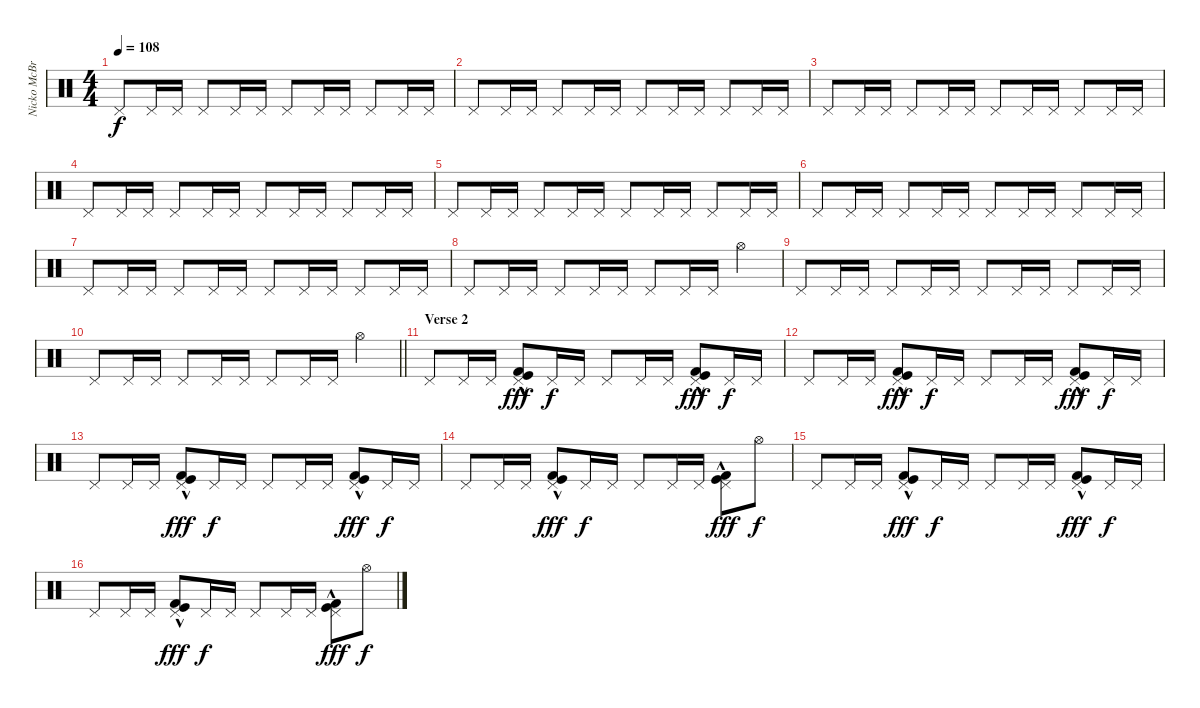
\track ("Nicko McBrain" "Nicko McBr") {instrument percussion}
\staff {score}
\articulation defaults
\ts (4 4)
\tempo 108
\clef neutral
\ks c "Pedal Hi-Hat (hit)".8{dy f} "Pedal Hi-Hat (hit)".16 "Pedal Hi-Hat (hit)".16 "Pedal Hi-Hat (hit)".8 "Pedal Hi-Hat (hit)".16 "Pedal Hi-Hat (hit)".16 "Pedal Hi-Hat (hit)".8 "Pedal Hi-Hat (hit)".16 "Pedal Hi-Hat (hit)".16 "Pedal Hi-Hat (hit)".8 "Pedal Hi-Hat (hit)".16 "Pedal Hi-Hat (hit)".16
|
"Pedal Hi-Hat (hit)".8 "Pedal Hi-Hat (hit)".16 "Pedal Hi-Hat (hit)".16 "Pedal Hi-Hat (hit)".8 "Pedal Hi-Hat (hit)".16 "Pedal Hi-Hat (hit)".16 "Pedal Hi-Hat (hit)".8 "Pedal Hi-Hat (hit)".16 "Pedal Hi-Hat (hit)".16 "Pedal Hi-Hat (hit)".8 "Pedal Hi-Hat (hit)".16 "Pedal Hi-Hat (hit)".16 |
"Pedal Hi-Hat (hit)".8 "Pedal Hi-Hat (hit)".16 "Pedal Hi-Hat (hit)".16 "Pedal Hi-Hat (hit)".8 "Pedal Hi-Hat (hit)".16 "Pedal Hi-Hat (hit)".16 "Pedal Hi-Hat (hit)".8 "Pedal Hi-Hat (hit)".16 "Pedal Hi-Hat (hit)".16 "Pedal Hi-Hat (hit)".8 "Pedal Hi-Hat (hit)".16 "Pedal Hi-Hat (hit)".16 |
"Pedal Hi-Hat (hit)".8 "Pedal Hi-Hat (hit)".16 "Pedal Hi-Hat (hit)".16 "Pedal Hi-Hat (hit)".8 "Pedal Hi-Hat (hit)".16 "Pedal Hi-Hat (hit)".16 "Pedal Hi-Hat (hit)".8 "Pedal Hi-Hat (hit)".16 "Pedal Hi-Hat (hit)".16 "Pedal Hi-Hat (hit)".8 "Pedal Hi-Hat (hit)".16 "Pedal Hi-Hat (hit)".16 |
"Pedal Hi-Hat (hit)".8 "Pedal Hi-Hat (hit)".16 "Pedal Hi-Hat (hit)".16 "Pedal Hi-Hat (hit)".8 "Pedal Hi-Hat (hit)".16 "Pedal Hi-Hat (hit)".16 "Pedal Hi-Hat (hit)".8 "Pedal Hi-Hat (hit)".16 "Pedal Hi-Hat (hit)".16 "Pedal Hi-Hat (hit)".8 "Pedal Hi-Hat (hit)".16 "Pedal Hi-Hat (hit)".16 |
"Pedal Hi-Hat (hit)".8 "Pedal Hi-Hat (hit)".16 "Pedal Hi-Hat (hit)".16 "Pedal Hi-Hat (hit)".8 "Pedal Hi-Hat (hit)".16 "Pedal Hi-Hat (hit)".16 "Pedal Hi-Hat (hit)".8 "Pedal Hi-Hat (hit)".16 "Pedal Hi-Hat (hit)".16 "Pedal Hi-Hat (hit)".8 "Pedal Hi-Hat (hit)".16 "Pedal Hi-Hat (hit)".16 |
"Pedal Hi-Hat (hit)".8 "Pedal Hi-Hat (hit)".16 "Pedal Hi-Hat (hit)".16 "Pedal Hi-Hat (hit)".8 "Pedal Hi-Hat (hit)".16 "Pedal Hi-Hat (hit)".16 "Pedal Hi-Hat (hit)".8 "Pedal Hi-Hat (hit)".16 "Pedal Hi-Hat (hit)".16 "Pedal Hi-Hat (hit)".8 "Pedal Hi-Hat (hit)".16 "Pedal Hi-Hat (hit)".16 |
"Pedal Hi-Hat (hit)".8 "Pedal Hi-Hat (hit)".16 "Pedal Hi-Hat (hit)".16 "Pedal Hi-Hat (hit)".8 "Pedal Hi-Hat (hit)".16 "Pedal Hi-Hat (hit)".16 "Pedal Hi-Hat (hit)".8 "Pedal Hi-Hat (hit)".16 "Pedal Hi-Hat (hit)".16 "Hi-Hat (open)".4 |
"Pedal Hi-Hat (hit)".8{volume 13} "Pedal Hi-Hat (hit)".16 "Pedal Hi-Hat (hit)".16 "Pedal Hi-Hat (hit)".8 "Pedal Hi-Hat (hit)".16 "Pedal Hi-Hat (hit)".16 "Pedal Hi-Hat (hit)".8 "Pedal Hi-Hat (hit)".16 "Pedal Hi-Hat (hit)".16 "Pedal Hi-Hat (hit)".8 "Pedal Hi-Hat (hit)".16 "Pedal Hi-Hat (hit)".16 |
\barLineRight lightlight "Pedal Hi-Hat (hit)".8 "Pedal Hi-Hat (hit)".16 "Pedal Hi-Hat (hit)".16 "Pedal Hi-Hat (hit)".8 "Pedal Hi-Hat (hit)".16 "Pedal Hi-Hat (hit)".16 "Pedal Hi-Hat (hit)".8 "Pedal Hi-Hat (hit)".16 "Pedal Hi-Hat (hit)".16 "Hi-Hat (open)".4
|
\section ("" "Verse 2")
"Pedal Hi-Hat (hit)".8 "Pedal Hi-Hat (hit)".16 "Pedal Hi-Hat (hit)".16 ("Pedal Hi-Hat (hit)" "Kick (hit)" "Kick (hit) 2"{hac}).8{dy fff} "Pedal Hi-Hat (hit)".16{dy f} "Pedal Hi-Hat (hit)".16 "Pedal Hi-Hat (hit)".8 "Pedal Hi-Hat (hit)".16 "Pedal Hi-Hat (hit)".16 ("Pedal Hi-Hat (hit)" "Kick (hit)" "Kick (hit) 2"{hac}).8{dy fff} "Pedal Hi-Hat (hit)".16{dy f} "Pedal Hi-Hat (hit)".16 |
"Pedal Hi-Hat (hit)".8 "Pedal Hi-Hat (hit)".16 "Pedal Hi-Hat (hit)".16 ("Pedal Hi-Hat (hit)" "Kick (hit)" "Kick (hit) 2"{hac}).8{dy fff} "Pedal Hi-Hat (hit)".16{dy f} "Pedal Hi-Hat (hit)".16 "Pedal Hi-Hat (hit)".8 "Pedal Hi-Hat (hit)".16 "Pedal Hi-Hat (hit)".16 ("Pedal Hi-Hat (hit)" "Kick (hit)" "Kick (hit) 2"{hac}).8{dy fff} "Pedal Hi-Hat (hit)".16{dy f} "Pedal Hi-Hat (hit)".16 |
"Pedal Hi-Hat (hit)".8 "Pedal Hi-Hat (hit)".16 "Pedal Hi-Hat (hit)".16 ("Pedal Hi-Hat (hit)" "Kick (hit)" "Kick (hit) 2"{hac}).8{dy fff} "Pedal Hi-Hat (hit)".16{dy f} "Pedal Hi-Hat (hit)".16 "Pedal Hi-Hat (hit)".8 "Pedal Hi-Hat (hit)".16 "Pedal Hi-Hat (hit)".16 ("Pedal Hi-Hat (hit)" "Kick (hit)" "Kick (hit) 2"{hac}).8{dy fff} "Pedal Hi-Hat (hit)".16{dy f} "Pedal Hi-Hat (hit)".16 |
"Pedal Hi-Hat (hit)".8 "Pedal Hi-Hat (hit)".16 "Pedal Hi-Hat (hit)".16 ("Pedal Hi-Hat (hit)" "Kick (hit)" "Kick (hit) 2"{hac}).8{dy fff} "Pedal Hi-Hat (hit)".16{dy f} "Pedal Hi-Hat (hit)".16 "Pedal Hi-Hat (hit)".8 "Pedal Hi-Hat (hit)".16 "Pedal Hi-Hat (hit)".16 ("Pedal Hi-Hat (hit)" "Kick (hit)" "Kick (hit) 2"{hac}).8{dy fff} "Hi-Hat (open)".8{dy f} |
"Pedal Hi-Hat (hit)".8 "Pedal Hi-Hat (hit)".16 "Pedal Hi-Hat (hit)".16 ("Pedal Hi-Hat (hit)" "Kick (hit)" "Kick (hit) 2"{hac}).8{dy fff} "Pedal Hi-Hat (hit)".16{dy f} "Pedal Hi-Hat (hit)".16 "Pedal Hi-Hat (hit)".8 "Pedal Hi-Hat (hit)".16 "Pedal Hi-Hat (hit)".16 ("Pedal Hi-Hat (hit)" "Kick (hit)" "Kick (hit) 2"{hac}).8{dy fff} "Pedal Hi-Hat (hit)".16{dy f} "Pedal Hi-Hat (hit)".16 |
"Pedal Hi-Hat (hit)".8 "Pedal Hi-Hat (hit)".16 "Pedal Hi-Hat (hit)".16 ("Pedal Hi-Hat (hit)" "Kick (hit)" "Kick (hit) 2"{hac}).8{dy fff} "Pedal Hi-Hat (hit)".16{dy f} "Pedal Hi-Hat (hit)".16 "Pedal Hi-Hat (hit)".8 "Pedal Hi-Hat (hit)".16 "Pedal Hi-Hat (hit)".16 ("Pedal Hi-Hat (hit)" "Kick (hit)" "Kick (hit) 2"{hac}).8{dy fff} "Hi-Hat (open)".8{dy f}
